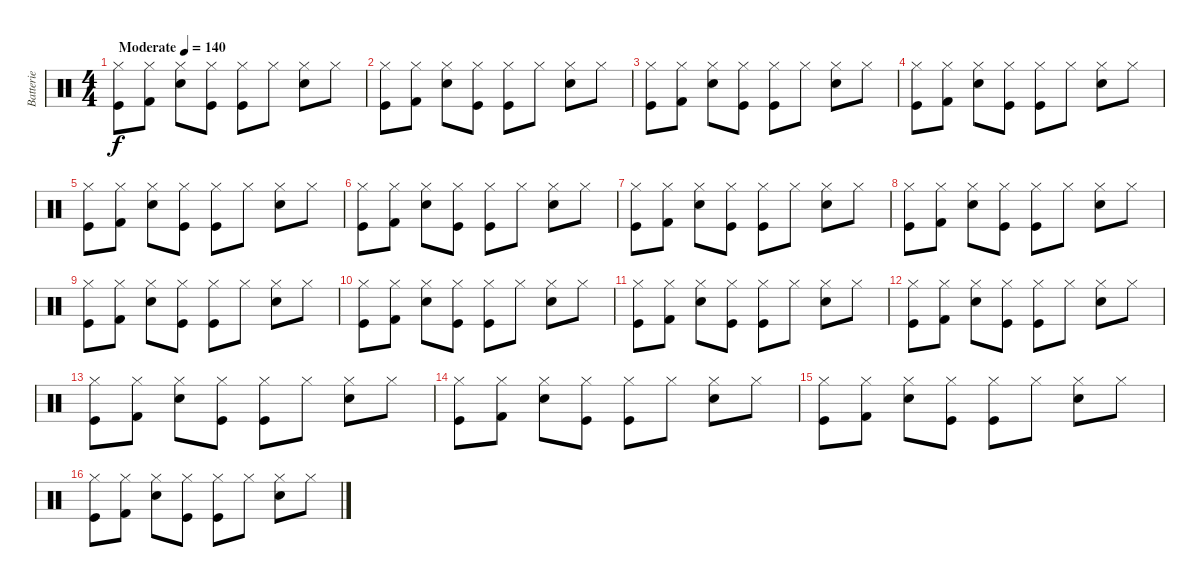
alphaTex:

\track ("Batterie" "Batterie") {instrument percussion}
\staff {score}
\articulation defaults
\ts (4 4)
\tempo (140 "Moderate")
\clef neutral
\ks c
("Hi-Hat (closed)" "Kick (hit)").8{dy f} ("Hi-Hat (closed)" "Kick (hit) 2").8 ("Hi-Hat (closed)" "Snare (hit) 2").8 ("Hi-Hat (closed)" "Kick (hit)").8 ("Hi-Hat (closed)" "Kick (hit)").8 "Hi-Hat (closed)".8 ("Hi-Hat (closed)" "Snare (hit) 2").8 "Hi-Hat (closed)".8 |
("Hi-Hat (closed)" "Kick (hit)").8 ("Hi-Hat (closed)" "Kick (hit) 2").8 ("Hi-Hat (closed)" "Snare (hit) 2").8 ("Hi-Hat (closed)" "Kick (hit)").8 ("Hi-Hat (closed)" "Kick (hit)").8 "Hi-Hat (closed)".8 ("Hi-Hat (closed)" "Snare (hit) 2").8 "Hi-Hat (closed)".8 |
("Hi-Hat (closed)" "Kick (hit)").8 ("Hi-Hat (closed)" "Kick (hit) 2").8 ("Hi-Hat (closed)" "Snare (hit) 2").8 ("Hi-Hat (closed)" "Kick (hit)").8 ("Hi-Hat (closed)" "Kick (hit)").8 "Hi-Hat (closed)".8 ("Hi-Hat (closed)" "Snare (hit) 2").8 "Hi-Hat (closed)".8 |
("Hi-Hat (closed)" "Kick (hit)").8 ("Hi-Hat (closed)" "Kick (hit) 2").8 ("Hi-Hat (closed)" "Snare (hit) 2").8 ("Hi-Hat (closed)" "Kick (hit)").8 ("Hi-Hat (closed)" "Kick (hit)").8 "Hi-Hat (closed)".8 ("Hi-Hat (closed)" "Snare (hit) 2").8 "Hi-Hat (closed)".8 |
("Hi-Hat (closed)" "Kick (hit)").8 ("Hi-Hat (closed)" "Kick (hit) 2").8 ("Hi-Hat (closed)" "Snare (hit) 2").8 ("Hi-Hat (closed)" "Kick (hit)").8 ("Hi-Hat (closed)" "Kick (hit)").8 "Hi-Hat (closed)".8 ("Hi-Hat (closed)" "Snare (hit) 2").8 "Hi-Hat (closed)".8 |
("Hi-Hat (closed)" "Kick (hit)").8 ("Hi-Hat (closed)" "Kick (hit) 2").8 ("Hi-Hat (closed)" "Snare (hit) 2").8 ("Hi-Hat (closed)" "Kick (hit)").8 ("Hi-Hat (closed)" "Kick (hit)").8 "Hi-Hat (closed)".8 ("Hi-Hat (closed)" "Snare (hit) 2").8 "Hi-Hat (closed)".8 |
("Hi-Hat (closed)" "Kick (hit)").8 ("Hi-Hat (closed)" "Kick (hit) 2").8 ("Hi-Hat (closed)" "Snare (hit) 2").8 ("Hi-Hat (closed)" "Kick (hit)").8 ("Hi-Hat (closed)" "Kick (hit)").8 "Hi-Hat (closed)".8 ("Hi-Hat (closed)" "Snare (hit) 2").8 "Hi-Hat (closed)".8 |
("Hi-Hat (closed)" "Kick (hit)").8 ("Hi-Hat (closed)" "Kick (hit) 2").8 ("Hi-Hat (closed)" "Snare (hit) 2").8 ("Hi-Hat (closed)" "Kick (hit)").8 ("Hi-Hat (closed)" "Kick (hit)").8 "Hi-Hat (closed)".8 ("Hi-Hat (closed)" "Snare (hit) 2").8 "Hi-Hat (closed)".8 |
("Hi-Hat (closed)" "Kick (hit)").8 ("Hi-Hat (closed)" "Kick (hit) 2").8 ("Hi-Hat (closed)" "Snare (hit) 2").8 ("Hi-Hat (closed)" "Kick (hit)").8 ("Hi-Hat (closed)" "Kick (hit)").8 "Hi-Hat (closed)".8 ("Hi-Hat (closed)" "Snare (hit) 2").8 "Hi-Hat (closed)".8 |
("Hi-Hat (closed)" "Kick (hit)").8 ("Hi-Hat (closed)" "Kick (hit) 2").8 ("Hi-Hat (closed)" "Snare (hit) 2").8 ("Hi-Hat (closed)" "Kick (hit)").8 ("Hi-Hat (closed)" "Kick (hit)").8 "Hi-Hat (closed)".8 ("Hi-Hat (closed)" "Snare (hit) 2").8 "Hi-Hat (closed)".8 |
("Hi-Hat (closed)" "Kick (hit)").8 ("Hi-Hat (closed)" "Kick (hit) 2").8 ("Hi-Hat (closed)" "Snare (hit) 2").8 ("Hi-Hat (closed)" "Kick (hit)").8 ("Hi-Hat (closed)" "Kick (hit)").8 "Hi-Hat (closed)".8 ("Hi-Hat (closed)" "Snare (hit) 2").8 "Hi-Hat (closed)".8 |
("Hi-Hat (closed)" "Kick (hit)").8 ("Hi-Hat (closed)" "Kick (hit) 2").8 ("Hi-Hat (closed)" "Snare (hit) 2").8 ("Hi-Hat (closed)" "Kick (hit)").8 ("Hi-Hat (closed)" "Kick (hit)").8 "Hi-Hat (closed)".8 ("Hi-Hat (closed)" "Snare (hit) 2").8 "Hi-Hat (closed)".8 |
("Hi-Hat (closed)" "Kick (hit)").8 ("Hi-Hat (closed)" "Kick (hit) 2").8 ("Hi-Hat (closed)" "Snare (hit) 2").8 ("Hi-Hat (closed)" "Kick (hit)").8 ("Hi-Hat (closed)" "Kick (hit)").8 "Hi-Hat (closed)".8 ("Hi-Hat (closed)" "Snare (hit) 2").8 "Hi-Hat (closed)".8 |
("Hi-Hat (closed)" "Kick (hit)").8 ("Hi-Hat (closed)" "Kick (hit) 2").8 ("Hi-Hat (closed)" "Snare (hit) 2").8 ("Hi-Hat (closed)" "Kick (hit)").8 ("Hi-Hat (closed)" "Kick (hit)").8 "Hi-Hat (closed)".8 ("Hi-Hat (closed)" "Snare (hit) 2").8 "Hi-Hat (closed)".8 |
("Hi-Hat (closed)" "Kick (hit)").8 ("Hi-Hat (closed)" "Kick (hit) 2").8 ("Hi-Hat (closed)" "Snare (hit) 2").8 ("Hi-Hat (closed)" "Kick (hit)").8 ("Hi-Hat (closed)" "Kick (hit)").8 "Hi-Hat (closed)".8 ("Hi-Hat (closed)" "Snare (hit) 2").8 "Hi-Hat (closed)".8 |
("Hi-Hat (closed)" "Kick (hit)").8 ("Hi-Hat (closed)" "Kick (hit) 2").8 ("Hi-Hat (closed)" "Snare (hit) 2").8 ("Hi-Hat (closed)" "Kick (hit)").8 ("Hi-Hat (closed)" "Kick (hit)").8 "Hi-Hat (closed)".8 ("Hi-Hat (closed)" "Snare (hit) 2").8 "Hi-Hat (closed)".8
